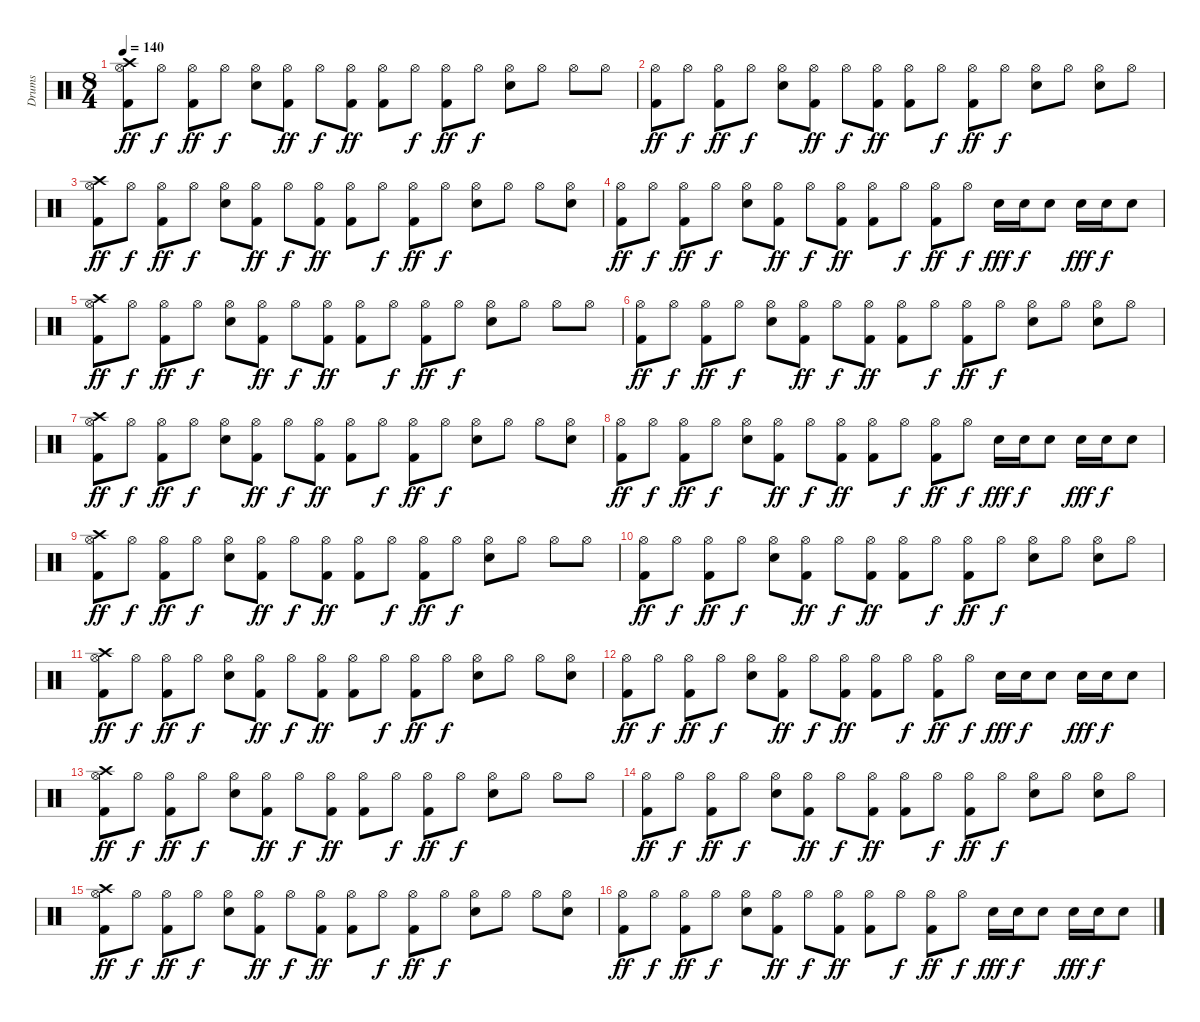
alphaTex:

\track ("Drums" "Drums") {instrument percussion}
\staff {score}
\articulation defaults
\ts (8 4)
\tempo 140
\clef neutral
\ks c
("Crash high (hit)" "Hi-Hat (open)" "Kick (hit) 2").8{dy ff} "Hi-Hat (open)".8{dy f} ("Hi-Hat (open)" "Kick (hit) 2").8{dy ff} "Hi-Hat (open)".8{dy f} ("Hi-Hat (open)" "Snare (hit) 2").8 ("Hi-Hat (open)" "Kick (hit) 2").8{dy ff} "Hi-Hat (open)".8{dy f} ("Hi-Hat (open)" "Kick (hit) 2").8{dy ff} ("Hi-Hat (open)" "Kick (hit) 2").8 "Hi-Hat (open)".8{dy f} ("Hi-Hat (open)" "Kick (hit) 2").8{dy ff} "Hi-Hat (open)".8{dy f} ("Hi-Hat (open)" "Snare (hit) 2").8 "Hi-Hat (open)".8 "Hi-Hat (open)".8 "Hi-Hat (open)".8 |
("Hi-Hat (open)" "Kick (hit) 2").8{dy ff} "Hi-Hat (open)".8{dy f} ("Hi-Hat (open)" "Kick (hit) 2").8{dy ff} "Hi-Hat (open)".8{dy f} ("Hi-Hat (open)" "Snare (hit) 2").8 ("Hi-Hat (open)" "Kick (hit) 2").8{dy ff} "Hi-Hat (open)".8{dy f} ("Hi-Hat (open)" "Kick (hit) 2").8{dy ff} ("Hi-Hat (open)" "Kick (hit) 2").8 "Hi-Hat (open)".8{dy f} ("Hi-Hat (open)" "Kick (hit) 2").8{dy ff} "Hi-Hat (open)".8{dy f} ("Hi-Hat (open)" "Snare (hit) 2").8 "Hi-Hat (open)".8 ("Hi-Hat (open)" "Snare (hit) 2").8 "Hi-Hat (open)".8 |
("Crash high (hit)" "Hi-Hat (open)" "Kick (hit) 2").8{dy ff} "Hi-Hat (open)".8{dy f} ("Hi-Hat (open)" "Kick (hit) 2").8{dy ff} "Hi-Hat (open)".8{dy f} ("Hi-Hat (open)" "Snare (hit) 2").8 ("Hi-Hat (open)" "Kick (hit) 2").8{dy ff} "Hi-Hat (open)".8{dy f} ("Hi-Hat (open)" "Kick (hit) 2").8{dy ff} ("Hi-Hat (open)" "Kick (hit) 2").8 "Hi-Hat (open)".8{dy f} ("Hi-Hat (open)" "Kick (hit) 2").8{dy ff} "Hi-Hat (open)".8{dy f} ("Hi-Hat (open)" "Snare (hit) 2").8 "Hi-Hat (open)".8 "Hi-Hat (open)".8 ("Hi-Hat (open)" "Snare (hit) 2").8 |
("Hi-Hat (open)" "Kick (hit) 2").8{dy ff} "Hi-Hat (open)".8{dy f} ("Hi-Hat (open)" "Kick (hit) 2").8{dy ff} "Hi-Hat (open)".8{dy f} ("Hi-Hat (open)" "Snare (hit) 2").8 ("Hi-Hat (open)" "Kick (hit) 2").8{dy ff} "Hi-Hat (open)".8{dy f} ("Hi-Hat (open)" "Kick (hit) 2").8{dy ff} ("Hi-Hat (open)" "Kick (hit) 2").8 "Hi-Hat (open)".8{dy f} ("Hi-Hat (open)" "Kick (hit) 2").8{dy ff} "Hi-Hat (open)".8{dy f} "Snare (hit) 2".16{dy fff} "Snare (hit) 2".16{dy f} "Snare (hit) 2".8 "Snare (hit) 2".16{dy fff} "Snare (hit) 2".16{dy f} "Snare (hit) 2".8 |
("Crash high (hit)" "Hi-Hat (open)" "Kick (hit) 2").8{dy ff} "Hi-Hat (open)".8{dy f} ("Hi-Hat (open)" "Kick (hit) 2").8{dy ff} "Hi-Hat (open)".8{dy f} ("Hi-Hat (open)" "Snare (hit) 2").8 ("Hi-Hat (open)" "Kick (hit) 2").8{dy ff} "Hi-Hat (open)".8{dy f} ("Hi-Hat (open)" "Kick (hit) 2").8{dy ff} ("Hi-Hat (open)" "Kick (hit) 2").8 "Hi-Hat (open)".8{dy f} ("Hi-Hat (open)" "Kick (hit) 2").8{dy ff} "Hi-Hat (open)".8{dy f} ("Hi-Hat (open)" "Snare (hit) 2").8 "Hi-Hat (open)".8 "Hi-Hat (open)".8 "Hi-Hat (open)".8 |
("Hi-Hat (open)" "Kick (hit) 2").8{dy ff} "Hi-Hat (open)".8{dy f} ("Hi-Hat (open)" "Kick (hit) 2").8{dy ff} "Hi-Hat (open)".8{dy f} ("Hi-Hat (open)" "Snare (hit) 2").8 ("Hi-Hat (open)" "Kick (hit) 2").8{dy ff} "Hi-Hat (open)".8{dy f} ("Hi-Hat (open)" "Kick (hit) 2").8{dy ff} ("Hi-Hat (open)" "Kick (hit) 2").8 "Hi-Hat (open)".8{dy f} ("Hi-Hat (open)" "Kick (hit) 2").8{dy ff} "Hi-Hat (open)".8{dy f} ("Hi-Hat (open)" "Snare (hit) 2").8 "Hi-Hat (open)".8 ("Hi-Hat (open)" "Snare (hit) 2").8 "Hi-Hat (open)".8 |
("Crash high (hit)" "Hi-Hat (open)" "Kick (hit) 2").8{dy ff} "Hi-Hat (open)".8{dy f} ("Hi-Hat (open)" "Kick (hit) 2").8{dy ff} "Hi-Hat (open)".8{dy f} ("Hi-Hat (open)" "Snare (hit) 2").8 ("Hi-Hat (open)" "Kick (hit) 2").8{dy ff} "Hi-Hat (open)".8{dy f} ("Hi-Hat (open)" "Kick (hit) 2").8{dy ff} ("Hi-Hat (open)" "Kick (hit) 2").8 "Hi-Hat (open)".8{dy f} ("Hi-Hat (open)" "Kick (hit) 2").8{dy ff} "Hi-Hat (open)".8{dy f} ("Hi-Hat (open)" "Snare (hit) 2").8 "Hi-Hat (open)".8 "Hi-Hat (open)".8 ("Hi-Hat (open)" "Snare (hit) 2").8 |
("Hi-Hat (open)" "Kick (hit) 2").8{dy ff} "Hi-Hat (open)".8{dy f} ("Hi-Hat (open)" "Kick (hit) 2").8{dy ff} "Hi-Hat (open)".8{dy f} ("Hi-Hat (open)" "Snare (hit) 2").8 ("Hi-Hat (open)" "Kick (hit) 2").8{dy ff} "Hi-Hat (open)".8{dy f} ("Hi-Hat (open)" "Kick (hit) 2").8{dy ff} ("Hi-Hat (open)" "Kick (hit) 2").8 "Hi-Hat (open)".8{dy f} ("Hi-Hat (open)" "Kick (hit) 2").8{dy ff} "Hi-Hat (open)".8{dy f} "Snare (hit) 2".16{dy fff} "Snare (hit) 2".16{dy f} "Snare (hit) 2".8 "Snare (hit) 2".16{dy fff} "Snare (hit) 2".16{dy f} "Snare (hit) 2".8 |
("Crash high (hit)" "Hi-Hat (open)" "Kick (hit) 2").8{dy ff} "Hi-Hat (open)".8{dy f} ("Hi-Hat (open)" "Kick (hit) 2").8{dy ff} "Hi-Hat (open)".8{dy f} ("Hi-Hat (open)" "Snare (hit) 2").8 ("Hi-Hat (open)" "Kick (hit) 2").8{dy ff} "Hi-Hat (open)".8{dy f} ("Hi-Hat (open)" "Kick (hit) 2").8{dy ff} ("Hi-Hat (open)" "Kick (hit) 2").8 "Hi-Hat (open)".8{dy f} ("Hi-Hat (open)" "Kick (hit) 2").8{dy ff} "Hi-Hat (open)".8{dy f} ("Hi-Hat (open)" "Snare (hit) 2").8 "Hi-Hat (open)".8 "Hi-Hat (open)".8 "Hi-Hat (open)".8 |
("Hi-Hat (open)" "Kick (hit) 2").8{dy ff} "Hi-Hat (open)".8{dy f} ("Hi-Hat (open)" "Kick (hit) 2").8{dy ff} "Hi-Hat (open)".8{dy f} ("Hi-Hat (open)" "Snare (hit) 2").8 ("Hi-Hat (open)" "Kick (hit) 2").8{dy ff} "Hi-Hat (open)".8{dy f} ("Hi-Hat (open)" "Kick (hit) 2").8{dy ff} ("Hi-Hat (open)" "Kick (hit) 2").8 "Hi-Hat (open)".8{dy f} ("Hi-Hat (open)" "Kick (hit) 2").8{dy ff} "Hi-Hat (open)".8{dy f} ("Hi-Hat (open)" "Snare (hit) 2").8 "Hi-Hat (open)".8 ("Hi-Hat (open)" "Snare (hit) 2").8 "Hi-Hat (open)".8 |
("Crash high (hit)" "Hi-Hat (open)" "Kick (hit) 2").8{dy ff} "Hi-Hat (open)".8{dy f} ("Hi-Hat (open)" "Kick (hit) 2").8{dy ff} "Hi-Hat (open)".8{dy f} ("Hi-Hat (open)" "Snare (hit) 2").8 ("Hi-Hat (open)" "Kick (hit) 2").8{dy ff} "Hi-Hat (open)".8{dy f} ("Hi-Hat (open)" "Kick (hit) 2").8{dy ff} ("Hi-Hat (open)" "Kick (hit) 2").8 "Hi-Hat (open)".8{dy f} ("Hi-Hat (open)" "Kick (hit) 2").8{dy ff} "Hi-Hat (open)".8{dy f} ("Hi-Hat (open)" "Snare (hit) 2").8 "Hi-Hat (open)".8 "Hi-Hat (open)".8 ("Hi-Hat (open)" "Snare (hit) 2").8 |
("Hi-Hat (open)" "Kick (hit) 2").8{dy ff} "Hi-Hat (open)".8{dy f} ("Hi-Hat (open)" "Kick (hit) 2").8{dy ff} "Hi-Hat (open)".8{dy f} ("Hi-Hat (open)" "Snare (hit) 2").8 ("Hi-Hat (open)" "Kick (hit) 2").8{dy ff} "Hi-Hat (open)".8{dy f} ("Hi-Hat (open)" "Kick (hit) 2").8{dy ff} ("Hi-Hat (open)" "Kick (hit) 2").8 "Hi-Hat (open)".8{dy f} ("Hi-Hat (open)" "Kick (hit) 2").8{dy ff} "Hi-Hat (open)".8{dy f} "Snare (hit) 2".16{dy fff} "Snare (hit) 2".16{dy f} "Snare (hit) 2".8 "Snare (hit) 2".16{dy fff} "Snare (hit) 2".16{dy f} "Snare (hit) 2".8 |
("Crash high (hit)" "Hi-Hat (open)" "Kick (hit) 2").8{dy ff} "Hi-Hat (open)".8{dy f} ("Hi-Hat (open)" "Kick (hit) 2").8{dy ff} "Hi-Hat (open)".8{dy f} ("Hi-Hat (open)" "Snare (hit) 2").8 ("Hi-Hat (open)" "Kick (hit) 2").8{dy ff} "Hi-Hat (open)".8{dy f} ("Hi-Hat (open)" "Kick (hit) 2").8{dy ff} ("Hi-Hat (open)" "Kick (hit) 2").8 "Hi-Hat (open)".8{dy f} ("Hi-Hat (open)" "Kick (hit) 2").8{dy ff} "Hi-Hat (open)".8{dy f} ("Hi-Hat (open)" "Snare (hit) 2").8 "Hi-Hat (open)".8 "Hi-Hat (open)".8 "Hi-Hat (open)".8 |
("Hi-Hat (open)" "Kick (hit) 2").8{dy ff} "Hi-Hat (open)".8{dy f} ("Hi-Hat (open)" "Kick (hit) 2").8{dy ff} "Hi-Hat (open)".8{dy f} ("Hi-Hat (open)" "Snare (hit) 2").8 ("Hi-Hat (open)" "Kick (hit) 2").8{dy ff} "Hi-Hat (open)".8{dy f} ("Hi-Hat (open)" "Kick (hit) 2").8{dy ff} ("Hi-Hat (open)" "Kick (hit) 2").8 "Hi-Hat (open)".8{dy f} ("Hi-Hat (open)" "Kick (hit) 2").8{dy ff} "Hi-Hat (open)".8{dy f} ("Hi-Hat (open)" "Snare (hit) 2").8 "Hi-Hat (open)".8 ("Hi-Hat (open)" "Snare (hit) 2").8 "Hi-Hat (open)".8 |
("Crash high (hit)" "Hi-Hat (open)" "Kick (hit) 2").8{dy ff} "Hi-Hat (open)".8{dy f} ("Hi-Hat (open)" "Kick (hit) 2").8{dy ff} "Hi-Hat (open)".8{dy f} ("Hi-Hat (open)" "Snare (hit) 2").8 ("Hi-Hat (open)" "Kick (hit) 2").8{dy ff} "Hi-Hat (open)".8{dy f} ("Hi-Hat (open)" "Kick (hit) 2").8{dy ff} ("Hi-Hat (open)" "Kick (hit) 2").8 "Hi-Hat (open)".8{dy f} ("Hi-Hat (open)" "Kick (hit) 2").8{dy ff} "Hi-Hat (open)".8{dy f} ("Hi-Hat (open)" "Snare (hit) 2").8 "Hi-Hat (open)".8 "Hi-Hat (open)".8 ("Hi-Hat (open)" "Snare (hit) 2").8 |
("Hi-Hat (open)" "Kick (hit) 2").8{dy ff} "Hi-Hat (open)".8{dy f} ("Hi-Hat (open)" "Kick (hit) 2").8{dy ff} "Hi-Hat (open)".8{dy f} ("Hi-Hat (open)" "Snare (hit) 2").8 ("Hi-Hat (open)" "Kick (hit) 2").8{dy ff} "Hi-Hat (open)".8{dy f} ("Hi-Hat (open)" "Kick (hit) 2").8{dy ff} ("Hi-Hat (open)" "Kick (hit) 2").8 "Hi-Hat (open)".8{dy f} ("Hi-Hat (open)" "Kick (hit) 2").8{dy ff} "Hi-Hat (open)".8{dy f} "Snare (hit) 2".16{dy fff} "Snare (hit) 2".16{dy f} "Snare (hit) 2".8 "Snare (hit) 2".16{dy fff} "Snare (hit) 2".16{dy f} "Snare (hit) 2".8
